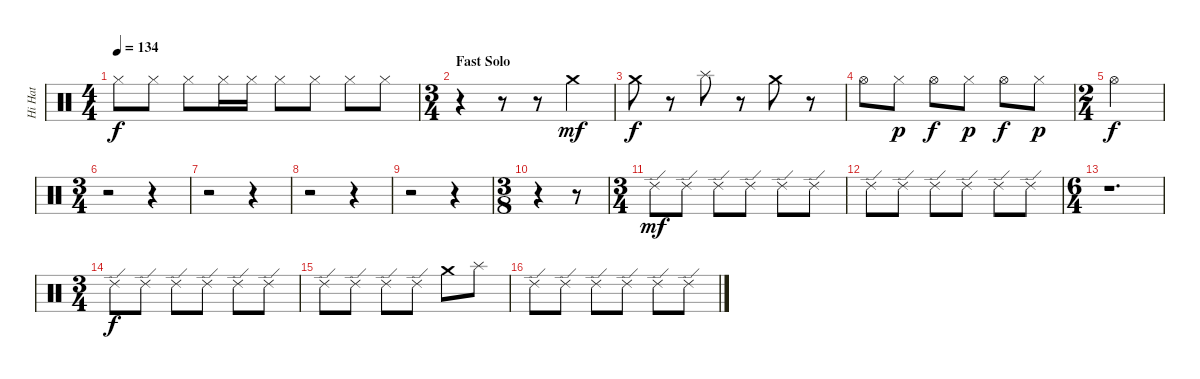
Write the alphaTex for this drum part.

\track ("Hi Hat" "Hi Hat") {instrument percussion}
\staff {score}
\articulation defaults
\ts (4 4)
\tempo 134
\clef neutral
\ks c "Hi-Hat (closed)".8{dy f} "Hi-Hat (closed)".8 "Hi-Hat (closed)".8 "Hi-Hat (closed)".16 "Hi-Hat (closed)".16 "Hi-Hat (closed)".8 "Hi-Hat (closed)".8 "Hi-Hat (closed)".8 "Hi-Hat (closed)".8
|
\ts (3 4)
\section ("" "Fast Solo")
r.4 r.8 r.8 "Crash medium (hit)".4{dy mf} |
"Crash medium (hit)".8{dy f} r.8 "Splash (hit)".8 r.8 "Crash medium (hit)".8 r.8 |
"Hi-Hat (open)".8 "Hi-Hat (closed)".8{dy p} "Hi-Hat (open)".8{dy f} "Hi-Hat (closed)".8{dy p} "Hi-Hat (open)".8{dy f} "Hi-Hat (closed)".8{dy p} |
\ts (2 4)
"Hi-Hat (open)".2{dy f} |
\ts (3 4)
r.2 r.4 |
r.2 r.4 |
r.2 r.4 |
r.2 r.4 |
\ts (3 8)
r.4 r.8 |
\ts (3 4)
"Ride (edge) 2".8{dy mf} "Ride (edge) 2".8 "Ride (edge) 2".8 "Ride (edge) 2".8 "Ride (edge) 2".8 "Ride (edge) 2".8 |
"Ride (edge) 2".8 "Ride (edge) 2".8 "Ride (edge) 2".8 "Ride (edge) 2".8 "Ride (edge) 2".8 "Ride (edge) 2".8 |
\ts (6 4)
r.1{d} |
\ts (3 4)
"Ride (edge) 2".8{dy f} "Ride (edge) 2".8 "Ride (edge) 2".8 "Ride (edge) 2".8 "Ride (edge) 2".8 "Ride (edge) 2".8 |
"Ride (edge) 2".8 "Ride (edge) 2".8 "Ride (edge) 2".8 "Ride (edge) 2".8 "Crash medium (hit)".8 "Splash (hit)".8 |
"Ride (edge) 2".8 "Ride (edge) 2".8 "Ride (edge) 2".8 "Ride (edge) 2".8 "Ride (edge) 2".8 "Ride (edge) 2".8
